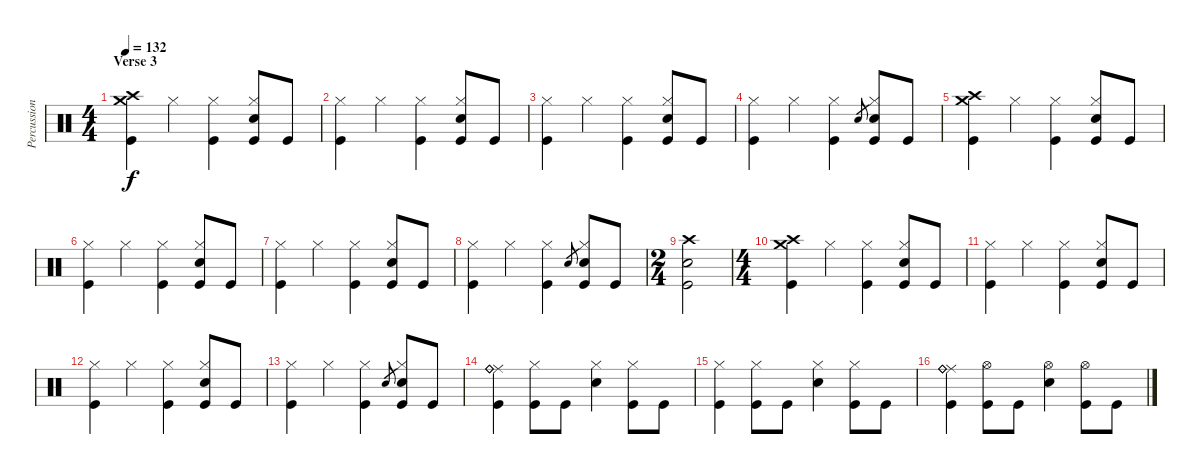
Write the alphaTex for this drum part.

\track ("Percussion" "Percussion") {instrument percussion}
\staff {score}
\articulation defaults
\ts (4 4)
\section ("" "Verse 3")
\tempo 132
\clef neutral
\ks c
("Crash high (hit)" "Crash medium (hit)" "Kick (hit)").4{dy f} "Hi-Hat (closed)".4 ("Hi-Hat (closed)" "Kick (hit)").4 ("Hi-Hat (closed)" "Electric Snare (hit)" "Kick (hit)").8 "Kick (hit)".8 |
("Hi-Hat (closed)" "Kick (hit)").4 "Hi-Hat (closed)".4 ("Hi-Hat (closed)" "Kick (hit)").4 ("Hi-Hat (closed)" "Electric Snare (hit)" "Kick (hit)").8 "Kick (hit)".8 |
("Hi-Hat (closed)" "Kick (hit)").4 "Hi-Hat (closed)".4 ("Hi-Hat (closed)" "Kick (hit)").4 ("Hi-Hat (closed)" "Electric Snare (hit)" "Kick (hit)").8 "Kick (hit)".8 |
("Hi-Hat (closed)" "Kick (hit)").4 "Hi-Hat (closed)".4 ("Hi-Hat (closed)" "Kick (hit)").4 "Electric Snare (hit)".8{gr} ("Hi-Hat (closed)" "Electric Snare (hit)" "Kick (hit)").8 "Kick (hit)".8 |
("Crash high (hit)" "Crash medium (hit)" "Kick (hit)").4 "Hi-Hat (closed)".4 ("Hi-Hat (closed)" "Kick (hit)").4 ("Hi-Hat (closed)" "Electric Snare (hit)" "Kick (hit)").8 "Kick (hit)".8 |
("Hi-Hat (closed)" "Kick (hit)").4 "Hi-Hat (closed)".4 ("Hi-Hat (closed)" "Kick (hit)").4 ("Hi-Hat (closed)" "Electric Snare (hit)" "Kick (hit)").8 "Kick (hit)".8 |
("Hi-Hat (closed)" "Kick (hit)").4 "Hi-Hat (closed)".4 ("Hi-Hat (closed)" "Kick (hit)").4 ("Hi-Hat (closed)" "Electric Snare (hit)" "Kick (hit)").8 "Kick (hit)".8 |
("Hi-Hat (closed)" "Kick (hit)").4 "Hi-Hat (closed)".4 ("Hi-Hat (closed)" "Kick (hit)").4 "Electric Snare (hit)".8{gr} ("Hi-Hat (closed)" "Electric Snare (hit)" "Kick (hit)").8 "Kick (hit)".8 |
\ts (2 4)
("Crash high (hit)" "Electric Snare (hit)" "Kick (hit)").2 |
\ts (4 4)
("Crash high (hit)" "Crash medium (hit)" "Kick (hit)").4 "Hi-Hat (closed)".4 ("Hi-Hat (closed)" "Kick (hit)").4 ("Hi-Hat (closed)" "Electric Snare (hit)" "Kick (hit)").8 "Kick (hit)".8 |
("Hi-Hat (closed)" "Kick (hit)").4 "Hi-Hat (closed)".4 ("Hi-Hat (closed)" "Kick (hit)").4 ("Hi-Hat (closed)" "Electric Snare (hit)" "Kick (hit)").8 "Kick (hit)".8 |
("Hi-Hat (closed)" "Kick (hit)").4 "Hi-Hat (closed)".4 ("Hi-Hat (closed)" "Kick (hit)").4 ("Hi-Hat (closed)" "Electric Snare (hit)" "Kick (hit)").8 "Kick (hit)".8 |
("Hi-Hat (closed)" "Kick (hit)").4 "Hi-Hat (closed)".4 ("Hi-Hat (closed)" "Kick (hit)").4 "Electric Snare (hit)".8{gr} ("Hi-Hat (closed)" "Electric Snare (hit)" "Kick (hit)").8 "Kick (hit)".8 |
("Ride (middle)" "Ride (bell)" "Ride (bell)" "Kick (hit)").4 ("Hi-Hat (closed)" "Kick (hit)").8 "Kick (hit)".8 ("Hi-Hat (closed)" "Electric Snare (hit)").4 ("Hi-Hat (closed)" "Kick (hit)").8 "Kick (hit)".8 |
("Hi-Hat (closed)" "Kick (hit)").4 ("Hi-Hat (closed)" "Kick (hit)").8 "Kick (hit)".8 ("Hi-Hat (closed)" "Electric Snare (hit)").4 ("Hi-Hat (closed)" "Kick (hit)").8 "Kick (hit)".8 |
("Ride (middle)" "Ride (bell)" "Ride (bell)" "Kick (hit)").4 ("Hi-Hat (open)" "Kick (hit)").8 "Kick (hit)".8 ("Hi-Hat (open)" "Electric Snare (hit)").4 ("Hi-Hat (open)" "Kick (hit)").8 "Kick (hit)".8
